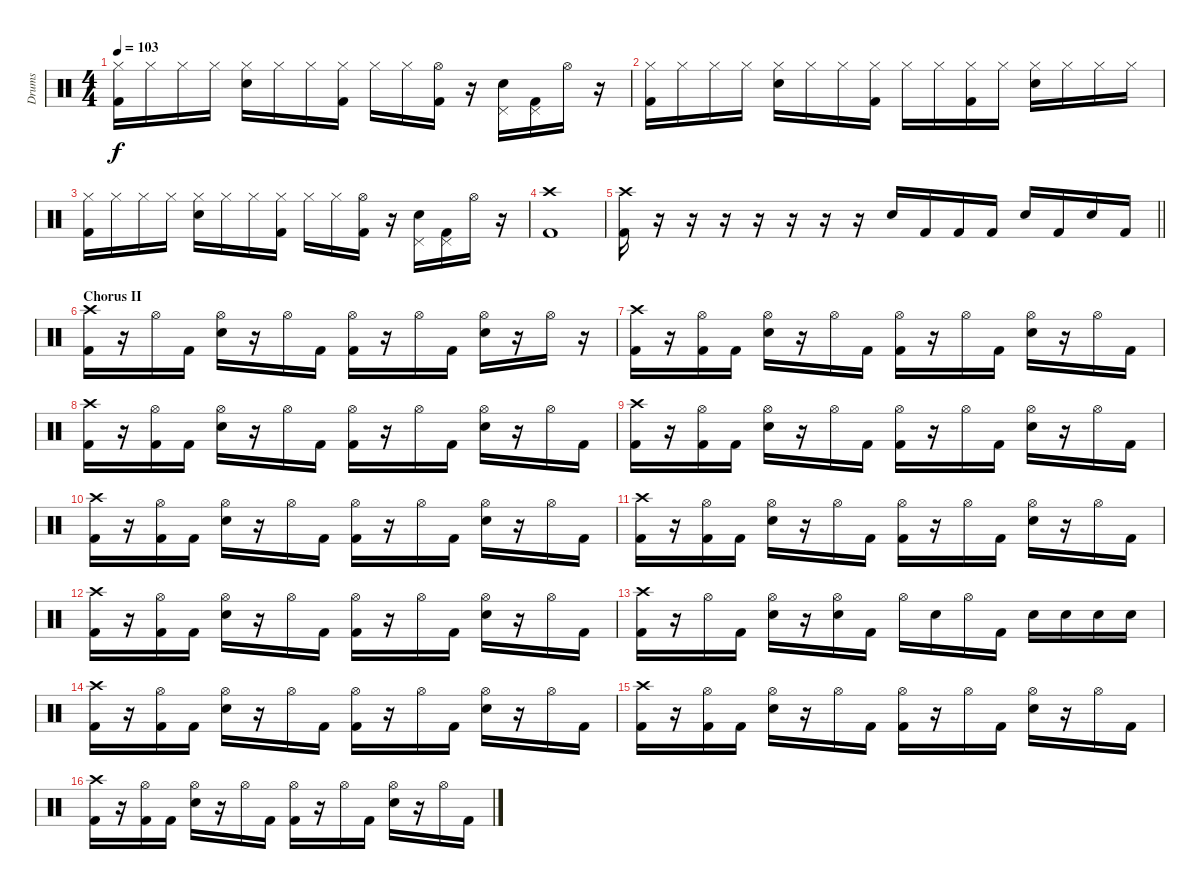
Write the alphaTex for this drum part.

\track ("Drums" "Drums") {instrument percussion}
\staff {score}
\articulation defaults
\ts (4 4)
\tempo 103
\clef neutral
\ks c
("Hi-Hat (closed)" "Kick (hit) 2").16{dy f} "Hi-Hat (closed)".16 "Hi-Hat (closed)".16 "Hi-Hat (closed)".16 ("Hi-Hat (closed)" "Electric Snare (hit)").16 "Hi-Hat (closed)".16 "Hi-Hat (closed)".16 ("Hi-Hat (closed)" "Kick (hit) 2").16 "Hi-Hat (closed)".16 "Hi-Hat (closed)".16 ("Hi-Hat (open)" "Kick (hit) 2").16 r.16 ("Pedal Hi-Hat (hit)" "Electric Snare (hit)").16 ("Pedal Hi-Hat (hit)" "Kick (hit) 2").16 "Hi-Hat (open)".16 r.16 |
("Hi-Hat (closed)" "Kick (hit) 2").16 "Hi-Hat (closed)".16 "Hi-Hat (closed)".16 "Hi-Hat (closed)".16 ("Hi-Hat (closed)" "Electric Snare (hit)").16 "Hi-Hat (closed)".16 "Hi-Hat (closed)".16 ("Hi-Hat (closed)" "Kick (hit) 2").16 "Hi-Hat (closed)".16 "Hi-Hat (closed)".16 ("Hi-Hat (closed)" "Kick (hit) 2").16 "Hi-Hat (closed)".16 ("Hi-Hat (closed)" "Electric Snare (hit)").16 "Hi-Hat (closed)".16 "Hi-Hat (closed)".16 "Hi-Hat (closed)".16 |
("Hi-Hat (closed)" "Kick (hit) 2").16 "Hi-Hat (closed)".16 "Hi-Hat (closed)".16 "Hi-Hat (closed)".16 ("Hi-Hat (closed)" "Electric Snare (hit)").16 "Hi-Hat (closed)".16 "Hi-Hat (closed)".16 ("Hi-Hat (closed)" "Kick (hit) 2").16 "Hi-Hat (closed)".16 "Hi-Hat (closed)".16 ("Hi-Hat (open)" "Kick (hit) 2").16 r.16 ("Pedal Hi-Hat (hit)" "Electric Snare (hit)").16 ("Pedal Hi-Hat (hit)" "Kick (hit) 2").16 "Hi-Hat (open)".16 r.16 |
("Crash high (hit)" "Kick (hit) 2").1 |
\barLineRight lightlight
("Crash high (hit)" "Kick (hit) 2").16 r.16 r.16 r.16 r.16 r.16 r.16 r.16 "Electric Snare (hit)".16 "Kick (hit) 2".16 "Kick (hit) 2".16 "Kick (hit) 2".16 "Electric Snare (hit)".16 "Kick (hit) 2".16 "Electric Snare (hit)".16 "Kick (hit) 2".16 |
\section ("" "Chorus II")
("Crash high (hit)" "Kick (hit) 2").16 r.16 "Hi-Hat (open)".16 "Kick (hit) 2".16 ("Hi-Hat (open)" "Electric Snare (hit)").16 r.16 "Hi-Hat (open)".16 "Kick (hit) 2".16 ("Hi-Hat (open)" "Kick (hit) 2").16 r.16 "Hi-Hat (open)".16 "Kick (hit) 2".16 ("Hi-Hat (open)" "Electric Snare (hit)").16 r.16 "Hi-Hat (open)".16 r.16 |
("Crash high (hit)" "Kick (hit) 2").16 r.16 ("Hi-Hat (open)" "Kick (hit) 2").16 "Kick (hit) 2".16 ("Hi-Hat (open)" "Electric Snare (hit)").16 r.16 "Hi-Hat (open)".16 "Kick (hit) 2".16 ("Hi-Hat (open)" "Kick (hit) 2").16 r.16 "Hi-Hat (open)".16 "Kick (hit) 2".16 ("Hi-Hat (open)" "Electric Snare (hit)").16 r.16 "Hi-Hat (open)".16 "Kick (hit) 2".16 |
("Crash high (hit)" "Kick (hit) 2").16 r.16 ("Hi-Hat (open)" "Kick (hit) 2").16 "Kick (hit) 2".16 ("Hi-Hat (open)" "Electric Snare (hit)").16 r.16 "Hi-Hat (open)".16 "Kick (hit) 2".16 ("Hi-Hat (open)" "Kick (hit) 2").16 r.16 "Hi-Hat (open)".16 "Kick (hit) 2".16 ("Hi-Hat (open)" "Electric Snare (hit)").16 r.16 "Hi-Hat (open)".16 "Kick (hit) 2".16 |
("Crash high (hit)" "Kick (hit) 2").16 r.16 ("Hi-Hat (open)" "Kick (hit) 2").16 "Kick (hit) 2".16 ("Hi-Hat (open)" "Electric Snare (hit)").16 r.16 "Hi-Hat (open)".16 "Kick (hit) 2".16 ("Hi-Hat (open)" "Kick (hit) 2").16 r.16 "Hi-Hat (open)".16 "Kick (hit) 2".16 ("Hi-Hat (open)" "Electric Snare (hit)").16 r.16 "Hi-Hat (open)".16 "Kick (hit) 2".16 |
("Crash high (hit)" "Kick (hit) 2").16 r.16 ("Hi-Hat (open)" "Kick (hit) 2").16 "Kick (hit) 2".16 ("Hi-Hat (open)" "Electric Snare (hit)").16 r.16 "Hi-Hat (open)".16 "Kick (hit) 2".16 ("Hi-Hat (open)" "Kick (hit) 2").16 r.16 "Hi-Hat (open)".16 "Kick (hit) 2".16 ("Hi-Hat (open)" "Electric Snare (hit)").16 r.16 "Hi-Hat (open)".16 "Kick (hit) 2".16 |
("Crash high (hit)" "Kick (hit) 2").16 r.16 ("Hi-Hat (open)" "Kick (hit) 2").16 "Kick (hit) 2".16 ("Hi-Hat (open)" "Electric Snare (hit)").16 r.16 "Hi-Hat (open)".16 "Kick (hit) 2".16 ("Hi-Hat (open)" "Kick (hit) 2").16 r.16 "Hi-Hat (open)".16 "Kick (hit) 2".16 ("Hi-Hat (open)" "Electric Snare (hit)").16 r.16 "Hi-Hat (open)".16 "Kick (hit) 2".16 |
("Crash high (hit)" "Kick (hit) 2").16 r.16 ("Hi-Hat (open)" "Kick (hit) 2").16 "Kick (hit) 2".16 ("Hi-Hat (open)" "Electric Snare (hit)").16 r.16 "Hi-Hat (open)".16 "Kick (hit) 2".16 ("Hi-Hat (open)" "Kick (hit) 2").16 r.16 "Hi-Hat (open)".16 "Kick (hit) 2".16 ("Hi-Hat (open)" "Electric Snare (hit)").16 r.16 "Hi-Hat (open)".16 "Kick (hit) 2".16 |
("Crash high (hit)" "Kick (hit) 2").16 r.16 "Hi-Hat (open)".16 "Kick (hit) 2".16 ("Hi-Hat (open)" "Electric Snare (hit)").16 r.16 ("Hi-Hat (open)" "Electric Snare (hit)").16 "Kick (hit) 2".16 "Hi-Hat (open)".16 "Electric Snare (hit)".16 "Hi-Hat (open)".16 "Kick (hit) 2".16 "Electric Snare (hit)".16 "Electric Snare (hit)".16 "Electric Snare (hit)".16 "Electric Snare (hit)".16 |
("Crash high (hit)" "Kick (hit) 2").16 r.16 ("Hi-Hat (open)" "Kick (hit) 2").16 "Kick (hit) 2".16 ("Hi-Hat (open)" "Electric Snare (hit)").16 r.16 "Hi-Hat (open)".16 "Kick (hit) 2".16 ("Hi-Hat (open)" "Kick (hit) 2").16 r.16 "Hi-Hat (open)".16 "Kick (hit) 2".16 ("Hi-Hat (open)" "Electric Snare (hit)").16 r.16 "Hi-Hat (open)".16 "Kick (hit) 2".16 |
("Crash high (hit)" "Kick (hit) 2").16 r.16 ("Hi-Hat (open)" "Kick (hit) 2").16 "Kick (hit) 2".16 ("Hi-Hat (open)" "Electric Snare (hit)").16 r.16 "Hi-Hat (open)".16 "Kick (hit) 2".16 ("Hi-Hat (open)" "Kick (hit) 2").16 r.16 "Hi-Hat (open)".16 "Kick (hit) 2".16 ("Hi-Hat (open)" "Electric Snare (hit)").16 r.16 "Hi-Hat (open)".16 "Kick (hit) 2".16 |
("Crash high (hit)" "Kick (hit) 2").16 r.16 ("Hi-Hat (open)" "Kick (hit) 2").16 "Kick (hit) 2".16 ("Hi-Hat (open)" "Electric Snare (hit)").16 r.16 "Hi-Hat (open)".16 "Kick (hit) 2".16 ("Hi-Hat (open)" "Kick (hit) 2").16 r.16 "Hi-Hat (open)".16 "Kick (hit) 2".16 ("Hi-Hat (open)" "Electric Snare (hit)").16 r.16 "Hi-Hat (open)".16 "Kick (hit) 2".16
